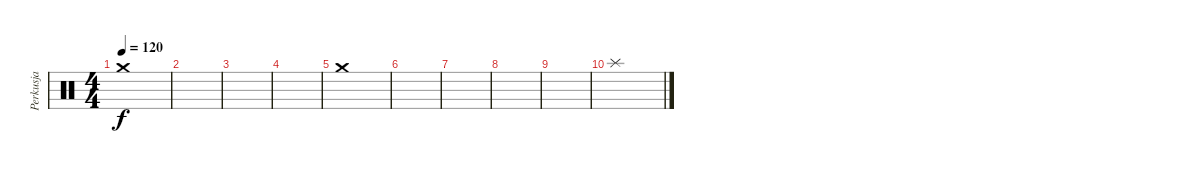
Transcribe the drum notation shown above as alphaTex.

\track ("Perkusja" "Perkusja") {instrument percussion}
\staff {score}
\articulation defaults
\ts (4 4)
\tempo 120
\clef neutral
\ks c "Crash medium (hit)".1{dy f}
|
|
|
|
"Crash medium (hit)".1 |
|
|
|
|
"Splash (hit)".1
